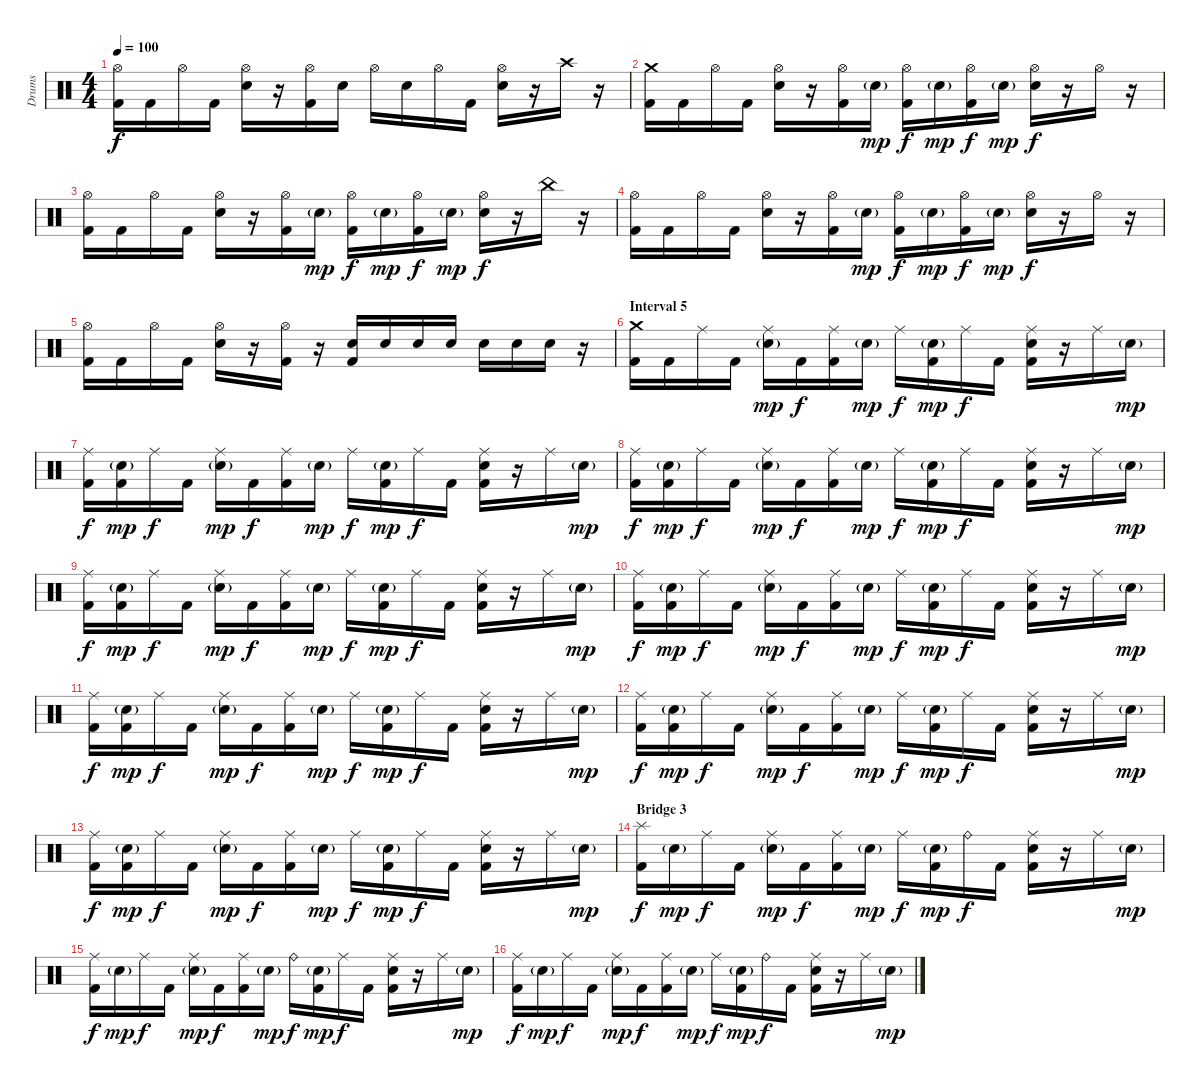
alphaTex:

\track ("Drums" "Drums") {instrument percussion}
\staff {score}
\articulation defaults
\ts (4 4)
\tempo 100
\clef neutral
\ks c
("Hi-Hat (open)" "Kick (hit) 2").16{dy f} "Kick (hit) 2".16 "Hi-Hat (open)".16 "Kick (hit) 2".16 ("Hi-Hat (open)" "Snare (hit) 2").16 r.16 ("Hi-Hat (open)" "Kick (hit) 2").16 "Snare (hit) 2".16 "Hi-Hat (open)".16 "Snare (hit) 2".16 "Hi-Hat (open)".16 "Kick (hit) 2".16 ("Hi-Hat (open)" "Snare (hit) 2").16 r.16 "Crash high (hit)".16 r.16 |
("Crash medium (hit)" "Kick (hit) 2").16 "Kick (hit) 2".16 "Hi-Hat (open)".16 "Kick (hit) 2".16 ("Hi-Hat (open)" "Snare (hit) 2").16 r.16 ("Hi-Hat (open)" "Kick (hit) 2").16 "Snare (hit) 2"{g}.16{dy mp} ("Hi-Hat (open)" "Kick (hit) 2").16{dy f} "Snare (hit) 2"{g}.16{dy mp} ("Hi-Hat (open)" "Kick (hit) 2").16{dy f} "Snare (hit) 2"{g}.16{dy mp} ("Hi-Hat (open)" "Snare (hit) 2").16{dy f} r.16 "Hi-Hat (open)".16 r.16 |
("Hi-Hat (open)" "Kick (hit) 2").16 "Kick (hit) 2".16 "Hi-Hat (open)".16 "Kick (hit) 2".16 ("Hi-Hat (open)" "Snare (hit) 2").16 r.16 ("Hi-Hat (open)" "Kick (hit) 2").16 "Snare (hit) 2"{g}.16{dy mp} ("Hi-Hat (open)" "Kick (hit) 2").16{dy f} "Snare (hit) 2"{g}.16{dy mp} ("Hi-Hat (open)" "Kick (hit) 2").16{dy f} "Snare (hit) 2"{g}.16{dy mp} ("Hi-Hat (open)" "Snare (hit) 2").16{dy f} r.16 "China (hit)".16 r.16 |
("Hi-Hat (open)" "Kick (hit) 2").16 "Kick (hit) 2".16 "Hi-Hat (open)".16 "Kick (hit) 2".16 ("Hi-Hat (open)" "Snare (hit) 2").16 r.16 ("Hi-Hat (open)" "Kick (hit) 2").16 "Snare (hit) 2"{g}.16{dy mp} ("Hi-Hat (open)" "Kick (hit) 2").16{dy f} "Snare (hit) 2"{g}.16{dy mp} ("Hi-Hat (open)" "Kick (hit) 2").16{dy f} "Snare (hit) 2"{g}.16{dy mp} ("Hi-Hat (open)" "Snare (hit) 2").16{dy f} r.16 "Hi-Hat (open)".16 r.16 |
("Hi-Hat (open)" "Kick (hit) 2").16 "Kick (hit) 2".16 "Hi-Hat (open)".16 "Kick (hit) 2".16 ("Hi-Hat (open)" "Snare (hit) 2").16 r.16 ("Hi-Hat (open)" "Kick (hit) 2").16 r.16 ("Snare (hit) 2" "Kick (hit) 2").16 "Snare (hit) 2".16 "Snare (hit) 2".16 "Snare (hit) 2".16 "Snare (hit) 2".16 "Snare (hit) 2".16 "Snare (hit) 2".16 r.16 |
\section ("" "Interval 5")
("Crash medium (hit)" "Kick (hit) 2").16 "Kick (hit) 2".16 "Ride (middle)".16 "Kick (hit) 2".16 ("Ride (middle)" "Snare (hit) 2"{g}).16{dy mp} "Kick (hit) 2".16{dy f} ("Ride (middle)" "Kick (hit) 2").16 "Snare (hit) 2"{g}.16{dy mp} "Ride (middle)".16{dy f} ("Snare (hit) 2"{g} "Kick (hit) 2").16{dy mp} "Ride (middle)".16{dy f} "Kick (hit) 2".16 ("Ride (middle)" "Snare (hit) 2" "Kick (hit) 2").16 r.16 "Ride (middle)".16 "Snare (hit) 2"{g}.16{dy mp} |
("Ride (middle)" "Kick (hit) 2").16{dy f} ("Snare (hit) 2"{g} "Kick (hit) 2").16{dy mp} "Ride (middle)".16{dy f} "Kick (hit) 2".16 ("Ride (middle)" "Snare (hit) 2"{g}).16{dy mp} "Kick (hit) 2".16{dy f} ("Ride (middle)" "Kick (hit) 2").16 "Snare (hit) 2"{g}.16{dy mp} "Ride (middle)".16{dy f} ("Snare (hit) 2"{g} "Kick (hit) 2").16{dy mp} "Ride (middle)".16{dy f} "Kick (hit) 2".16 ("Ride (middle)" "Snare (hit) 2" "Kick (hit) 2").16 r.16 "Ride (middle)".16 "Snare (hit) 2"{g}.16{dy mp} |
("Ride (middle)" "Kick (hit) 2").16{dy f} ("Snare (hit) 2"{g} "Kick (hit) 2").16{dy mp} "Ride (middle)".16{dy f} "Kick (hit) 2".16 ("Ride (middle)" "Snare (hit) 2"{g}).16{dy mp} "Kick (hit) 2".16{dy f} ("Ride (middle)" "Kick (hit) 2").16 "Snare (hit) 2"{g}.16{dy mp} "Ride (middle)".16{dy f} ("Snare (hit) 2"{g} "Kick (hit) 2").16{dy mp} "Ride (middle)".16{dy f} "Kick (hit) 2".16 ("Ride (middle)" "Snare (hit) 2" "Kick (hit) 2").16 r.16 "Ride (middle)".16 "Snare (hit) 2"{g}.16{dy mp} |
("Ride (middle)" "Kick (hit) 2").16{dy f} ("Snare (hit) 2"{g} "Kick (hit) 2").16{dy mp} "Ride (middle)".16{dy f} "Kick (hit) 2".16 ("Ride (middle)" "Snare (hit) 2"{g}).16{dy mp} "Kick (hit) 2".16{dy f} ("Ride (middle)" "Kick (hit) 2").16 "Snare (hit) 2"{g}.16{dy mp} "Ride (middle)".16{dy f} ("Snare (hit) 2"{g} "Kick (hit) 2").16{dy mp} "Ride (middle)".16{dy f} "Kick (hit) 2".16 ("Ride (middle)" "Snare (hit) 2" "Kick (hit) 2").16 r.16 "Ride (middle)".16 "Snare (hit) 2"{g}.16{dy mp} |
("Ride (middle)" "Kick (hit) 2").16{dy f} ("Snare (hit) 2"{g} "Kick (hit) 2").16{dy mp} "Ride (middle)".16{dy f} "Kick (hit) 2".16 ("Ride (middle)" "Snare (hit) 2"{g}).16{dy mp} "Kick (hit) 2".16{dy f} ("Ride (middle)" "Kick (hit) 2").16 "Snare (hit) 2"{g}.16{dy mp} "Ride (middle)".16{dy f} ("Snare (hit) 2"{g} "Kick (hit) 2").16{dy mp} "Ride (middle)".16{dy f} "Kick (hit) 2".16 ("Ride (middle)" "Snare (hit) 2" "Kick (hit) 2").16 r.16 "Ride (middle)".16 "Snare (hit) 2"{g}.16{dy mp} |
("Ride (middle)" "Kick (hit) 2").16{dy f} ("Snare (hit) 2"{g} "Kick (hit) 2").16{dy mp} "Ride (middle)".16{dy f} "Kick (hit) 2".16 ("Ride (middle)" "Snare (hit) 2"{g}).16{dy mp} "Kick (hit) 2".16{dy f} ("Ride (middle)" "Kick (hit) 2").16 "Snare (hit) 2"{g}.16{dy mp} "Ride (middle)".16{dy f} ("Snare (hit) 2"{g} "Kick (hit) 2").16{dy mp} "Ride (middle)".16{dy f} "Kick (hit) 2".16 ("Ride (middle)" "Snare (hit) 2" "Kick (hit) 2").16 r.16 "Ride (middle)".16 "Snare (hit) 2"{g}.16{dy mp} |
("Ride (middle)" "Kick (hit) 2").16{dy f} ("Snare (hit) 2"{g} "Kick (hit) 2").16{dy mp} "Ride (middle)".16{dy f} "Kick (hit) 2".16 ("Ride (middle)" "Snare (hit) 2"{g}).16{dy mp} "Kick (hit) 2".16{dy f} ("Ride (middle)" "Kick (hit) 2").16 "Snare (hit) 2"{g}.16{dy mp} "Ride (middle)".16{dy f} ("Snare (hit) 2"{g} "Kick (hit) 2").16{dy mp} "Ride (middle)".16{dy f} "Kick (hit) 2".16 ("Ride (middle)" "Snare (hit) 2" "Kick (hit) 2").16 r.16 "Ride (middle)".16 "Snare (hit) 2"{g}.16{dy mp} |
("Ride (middle)" "Kick (hit) 2").16{dy f} ("Snare (hit) 2"{g} "Kick (hit) 2").16{dy mp} "Ride (middle)".16{dy f} "Kick (hit) 2".16 ("Ride (middle)" "Snare (hit) 2"{g}).16{dy mp} "Kick (hit) 2".16{dy f} ("Ride (middle)" "Kick (hit) 2").16 "Snare (hit) 2"{g}.16{dy mp} "Ride (middle)".16{dy f} ("Snare (hit) 2"{g} "Kick (hit) 2").16{dy mp} "Ride (middle)".16{dy f} "Kick (hit) 2".16 ("Ride (middle)" "Snare (hit) 2" "Kick (hit) 2").16 r.16 "Ride (middle)".16 "Snare (hit) 2"{g}.16{dy mp} |
\section ("" "Bridge 3")
("Splash (hit)" "Kick (hit) 2").16{dy f} "Snare (hit) 2"{g}.16{dy mp} "Ride (middle)".16{dy f} "Kick (hit) 2".16 ("Ride (middle)" "Snare (hit) 2"{g}).16{dy mp} "Kick (hit) 2".16{dy f} ("Ride (middle)" "Kick (hit) 2").16 "Snare (hit) 2"{g}.16{dy mp} "Ride (middle)".16{dy f} ("Snare (hit) 2"{g} "Kick (hit) 2").16{dy mp} "Ride (bell)".16{dy f} "Kick (hit) 2".16 ("Ride (middle)" "Snare (hit) 2" "Kick (hit) 2").16 r.16 "Ride (middle)".16 "Snare (hit) 2"{g}.16{dy mp} |
("Ride (middle)" "Kick (hit) 2").16{dy f} "Snare (hit) 2"{g}.16{dy mp} "Ride (middle)".16{dy f} "Kick (hit) 2".16 ("Ride (middle)" "Snare (hit) 2"{g}).16{dy mp} "Kick (hit) 2".16{dy f} ("Ride (middle)" "Kick (hit) 2").16 "Snare (hit) 2"{g}.16{dy mp} "Ride (bell)".16{dy f} ("Snare (hit) 2"{g} "Kick (hit) 2").16{dy mp} "Ride (middle)".16{dy f} "Kick (hit) 2".16 ("Ride (middle)" "Snare (hit) 2" "Kick (hit) 2").16 r.16 "Ride (middle)".16 "Snare (hit) 2"{g}.16{dy mp} |
("Ride (middle)" "Kick (hit) 2").16{dy f} "Snare (hit) 2"{g}.16{dy mp} "Ride (middle)".16{dy f} "Kick (hit) 2".16 ("Ride (middle)" "Snare (hit) 2"{g}).16{dy mp} "Kick (hit) 2".16{dy f} ("Ride (middle)" "Kick (hit) 2").16 "Snare (hit) 2"{g}.16{dy mp} "Ride (middle)".16{dy f} ("Snare (hit) 2"{g} "Kick (hit) 2").16{dy mp} "Ride (bell)".16{dy f} "Kick (hit) 2".16 ("Ride (middle)" "Snare (hit) 2" "Kick (hit) 2").16 r.16 "Ride (middle)".16 "Snare (hit) 2"{g}.16{dy mp}
